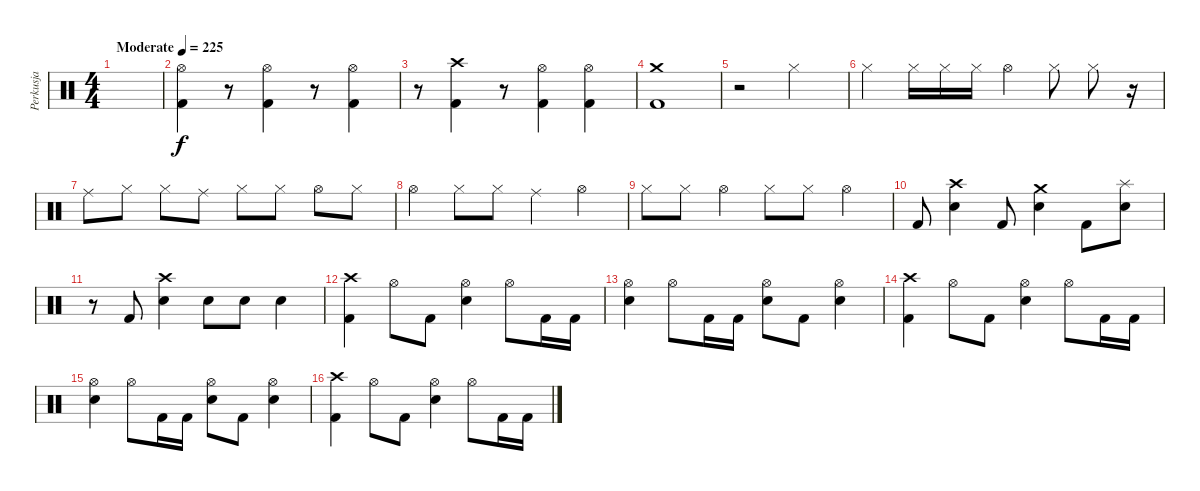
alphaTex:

\track ("Perkusja" "Perkusja") {instrument percussion}
\staff {score}
\articulation defaults
\ts (4 4)
\tempo (225 "Moderate")
\clef neutral
\ks c
|
("Hi-Hat (open)" "Kick (hit) 2").4 r.8 ("Hi-Hat (open)" "Kick (hit) 2").4 r.8 ("Hi-Hat (open)" "Kick (hit) 2").4 |
r.8 ("Crash high (hit)" "Kick (hit) 2").4 r.8 ("Hi-Hat (open)" "Kick (hit) 2").4 ("Hi-Hat (open)" "Kick (hit) 2").4 |
("Crash medium (hit)" "Kick (hit) 2").1 |
r.2 "Hi-Hat (closed)".2 |
"Hi-Hat (closed)".4 "Hi-Hat (closed)".16 "Hi-Hat (closed)".16 "Hi-Hat (closed)".16 "Hi-Hat (open)".4 "Hi-Hat (closed)".8 "Hi-Hat (closed)".8 r.16 |
"Ride (middle)".8 "Hi-Hat (closed)".8 "Hi-Hat (closed)".8 "Ride (middle)".8 "Hi-Hat (closed)".8 "Hi-Hat (closed)".8 "Hi-Hat (open)".8 "Hi-Hat (closed)".8 |
"Hi-Hat (open)".4 "Hi-Hat (closed)".8 "Hi-Hat (closed)".8 "Ride (middle)".4 "Hi-Hat (open)".4 |
"Hi-Hat (closed)".8 "Hi-Hat (closed)".8 "Hi-Hat (open)".4 "Hi-Hat (closed)".8 "Hi-Hat (closed)".8 "Hi-Hat (open)".4 |
"Kick (hit) 2".8 ("Crash high (hit)" "Snare (hit) 2").4 "Kick (hit) 2".8 ("Crash medium (hit)" "Snare (hit) 2").4 "Kick (hit) 2".8 ("Splash (hit)" "Snare (hit) 2").8 |
r.8 "Kick (hit) 2".8 ("Crash high (hit)" "Snare (hit) 2").4 "Snare (hit) 2".8 "Snare (hit) 2".8 "Snare (hit) 2".4 |
("Crash high (hit)" "Kick (hit) 2").4 "Hi-Hat (open)".8 "Kick (hit) 2".8 ("Hi-Hat (open)" "Snare (hit) 2").4 "Hi-Hat (open)".8 "Kick (hit) 2".16 "Kick (hit) 2".16 |
("Hi-Hat (open)" "Snare (hit) 2").4 "Hi-Hat (open)".8 "Kick (hit) 2".16 "Kick (hit) 2".16 ("Hi-Hat (open)" "Snare (hit) 2").8 "Kick (hit) 2".8 ("Hi-Hat (open)" "Snare (hit) 2").4 |
("Crash high (hit)" "Kick (hit) 2").4 "Hi-Hat (open)".8 "Kick (hit) 2".8 ("Hi-Hat (open)" "Snare (hit) 2").4 "Hi-Hat (open)".8 "Kick (hit) 2".16 "Kick (hit) 2".16 |
("Hi-Hat (open)" "Snare (hit) 2").4 "Hi-Hat (open)".8 "Kick (hit) 2".16 "Kick (hit) 2".16 ("Hi-Hat (open)" "Snare (hit) 2").8 "Kick (hit) 2".8 ("Hi-Hat (open)" "Snare (hit) 2").4 |
("Crash high (hit)" "Kick (hit) 2").4 "Hi-Hat (open)".8 "Kick (hit) 2".8 ("Hi-Hat (open)" "Snare (hit) 2").4 "Hi-Hat (open)".8 "Kick (hit) 2".16 "Kick (hit) 2".16
